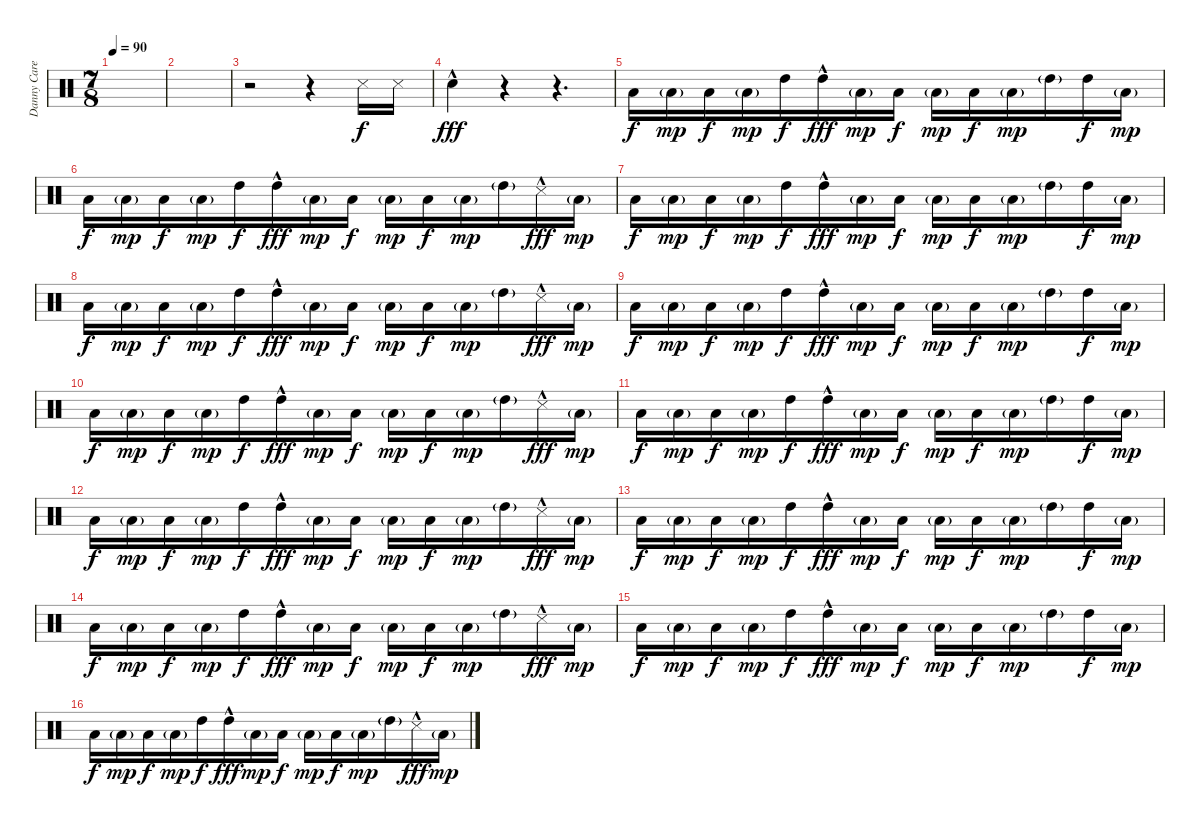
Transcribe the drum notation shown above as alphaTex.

\track ("Danny Carey" "Danny Care") {instrument percussion}
\staff {score}
\articulation defaults
\ts (7 8)
\tempo 90
\clef neutral
\ks c
|
|
r.2 r.4 "Snare (side stick) 3".16{dy f} "Snare (side stick) 3".16 |
"Hand Clap (hit)"{hac}.4{dy fff} r.4 r.4{d} |
"Low Tom (hit)".16{dy f} "Low Tom (hit)"{g}.16{dy mp} "Low Tom (hit)".16{dy f} "Low Tom (hit)"{g}.16{dy mp} "High Tom (hit)".16{dy f} "High Tom (hit)"{hac}.16{dy fff} "Low Tom (hit)"{g}.16{dy mp} "Low Tom (hit)".16{dy f} "Low Tom (hit)"{g}.16{dy mp} "Low Tom (hit)".16{dy f} "Low Tom (hit)"{g}.16{dy mp} "High Tom (hit)"{g}.16 "High Tom (hit)".16{dy f} "Low Tom (hit)"{g}.16{dy mp} |
"Low Tom (hit)".16{dy f} "Low Tom (hit)"{g}.16{dy mp} "Low Tom (hit)".16{dy f} "Low Tom (hit)"{g}.16{dy mp} "High Tom (hit)".16{dy f} "High Tom (hit)"{hac}.16{dy fff} "Low Tom (hit)"{g}.16{dy mp} "Low Tom (hit)".16{dy f} "Low Tom (hit)"{g}.16{dy mp} "Low Tom (hit)".16{dy f} "Low Tom (hit)"{g}.16{dy mp} "High Tom (hit)"{g}.16 "Snare (side stick) 3"{hac}.16{dy fff} "Low Tom (hit)"{g}.16{dy mp} |
"Low Tom (hit)".16{dy f} "Low Tom (hit)"{g}.16{dy mp} "Low Tom (hit)".16{dy f} "Low Tom (hit)"{g}.16{dy mp} "High Tom (hit)".16{dy f} "High Tom (hit)"{hac}.16{dy fff} "Low Tom (hit)"{g}.16{dy mp} "Low Tom (hit)".16{dy f} "Low Tom (hit)"{g}.16{dy mp} "Low Tom (hit)".16{dy f} "Low Tom (hit)"{g}.16{dy mp} "High Tom (hit)"{g}.16 "High Tom (hit)".16{dy f} "Low Tom (hit)"{g}.16{dy mp} |
"Low Tom (hit)".16{dy f} "Low Tom (hit)"{g}.16{dy mp} "Low Tom (hit)".16{dy f} "Low Tom (hit)"{g}.16{dy mp} "High Tom (hit)".16{dy f} "High Tom (hit)"{hac}.16{dy fff} "Low Tom (hit)"{g}.16{dy mp} "Low Tom (hit)".16{dy f} "Low Tom (hit)"{g}.16{dy mp} "Low Tom (hit)".16{dy f} "Low Tom (hit)"{g}.16{dy mp} "High Tom (hit)"{g}.16 "Snare (side stick) 3"{hac}.16{dy fff} "Low Tom (hit)"{g}.16{dy mp} |
"Low Tom (hit)".16{dy f} "Low Tom (hit)"{g}.16{dy mp} "Low Tom (hit)".16{dy f} "Low Tom (hit)"{g}.16{dy mp} "High Tom (hit)".16{dy f} "High Tom (hit)"{hac}.16{dy fff} "Low Tom (hit)"{g}.16{dy mp} "Low Tom (hit)".16{dy f} "Low Tom (hit)"{g}.16{dy mp} "Low Tom (hit)".16{dy f} "Low Tom (hit)"{g}.16{dy mp} "High Tom (hit)"{g}.16 "High Tom (hit)".16{dy f} "Low Tom (hit)"{g}.16{dy mp} |
"Low Tom (hit)".16{dy f} "Low Tom (hit)"{g}.16{dy mp} "Low Tom (hit)".16{dy f} "Low Tom (hit)"{g}.16{dy mp} "High Tom (hit)".16{dy f} "High Tom (hit)"{hac}.16{dy fff} "Low Tom (hit)"{g}.16{dy mp} "Low Tom (hit)".16{dy f} "Low Tom (hit)"{g}.16{dy mp} "Low Tom (hit)".16{dy f} "Low Tom (hit)"{g}.16{dy mp} "High Tom (hit)"{g}.16 "Snare (side stick) 3"{hac}.16{dy fff} "Low Tom (hit)"{g}.16{dy mp} |
"Low Tom (hit)".16{dy f} "Low Tom (hit)"{g}.16{dy mp} "Low Tom (hit)".16{dy f} "Low Tom (hit)"{g}.16{dy mp} "High Tom (hit)".16{dy f} "High Tom (hit)"{hac}.16{dy fff} "Low Tom (hit)"{g}.16{dy mp} "Low Tom (hit)".16{dy f} "Low Tom (hit)"{g}.16{dy mp} "Low Tom (hit)".16{dy f} "Low Tom (hit)"{g}.16{dy mp} "High Tom (hit)"{g}.16 "High Tom (hit)".16{dy f} "Low Tom (hit)"{g}.16{dy mp} |
"Low Tom (hit)".16{dy f} "Low Tom (hit)"{g}.16{dy mp} "Low Tom (hit)".16{dy f} "Low Tom (hit)"{g}.16{dy mp} "High Tom (hit)".16{dy f} "High Tom (hit)"{hac}.16{dy fff} "Low Tom (hit)"{g}.16{dy mp} "Low Tom (hit)".16{dy f} "Low Tom (hit)"{g}.16{dy mp} "Low Tom (hit)".16{dy f} "Low Tom (hit)"{g}.16{dy mp} "High Tom (hit)"{g}.16 "Snare (side stick) 3"{hac}.16{dy fff} "Low Tom (hit)"{g}.16{dy mp} |
"Low Tom (hit)".16{dy f} "Low Tom (hit)"{g}.16{dy mp} "Low Tom (hit)".16{dy f} "Low Tom (hit)"{g}.16{dy mp} "High Tom (hit)".16{dy f} "High Tom (hit)"{hac}.16{dy fff} "Low Tom (hit)"{g}.16{dy mp} "Low Tom (hit)".16{dy f} "Low Tom (hit)"{g}.16{dy mp} "Low Tom (hit)".16{dy f} "Low Tom (hit)"{g}.16{dy mp} "High Tom (hit)"{g}.16 "High Tom (hit)".16{dy f} "Low Tom (hit)"{g}.16{dy mp} |
"Low Tom (hit)".16{dy f} "Low Tom (hit)"{g}.16{dy mp} "Low Tom (hit)".16{dy f} "Low Tom (hit)"{g}.16{dy mp} "High Tom (hit)".16{dy f} "High Tom (hit)"{hac}.16{dy fff} "Low Tom (hit)"{g}.16{dy mp} "Low Tom (hit)".16{dy f} "Low Tom (hit)"{g}.16{dy mp} "Low Tom (hit)".16{dy f} "Low Tom (hit)"{g}.16{dy mp} "High Tom (hit)"{g}.16 "Snare (side stick) 3"{hac}.16{dy fff} "Low Tom (hit)"{g}.16{dy mp} |
"Low Tom (hit)".16{dy f} "Low Tom (hit)"{g}.16{dy mp} "Low Tom (hit)".16{dy f} "Low Tom (hit)"{g}.16{dy mp} "High Tom (hit)".16{dy f} "High Tom (hit)"{hac}.16{dy fff} "Low Tom (hit)"{g}.16{dy mp} "Low Tom (hit)".16{dy f} "Low Tom (hit)"{g}.16{dy mp} "Low Tom (hit)".16{dy f} "Low Tom (hit)"{g}.16{dy mp} "High Tom (hit)"{g}.16 "High Tom (hit)".16{dy f} "Low Tom (hit)"{g}.16{dy mp} |
"Low Tom (hit)".16{dy f} "Low Tom (hit)"{g}.16{dy mp} "Low Tom (hit)".16{dy f} "Low Tom (hit)"{g}.16{dy mp} "High Tom (hit)".16{dy f} "High Tom (hit)"{hac}.16{dy fff} "Low Tom (hit)"{g}.16{dy mp} "Low Tom (hit)".16{dy f} "Low Tom (hit)"{g}.16{dy mp} "Low Tom (hit)".16{dy f} "Low Tom (hit)"{g}.16{dy mp} "High Tom (hit)"{g}.16 "Snare (side stick) 3"{hac}.16{dy fff} "Low Tom (hit)"{g}.16{dy mp}
